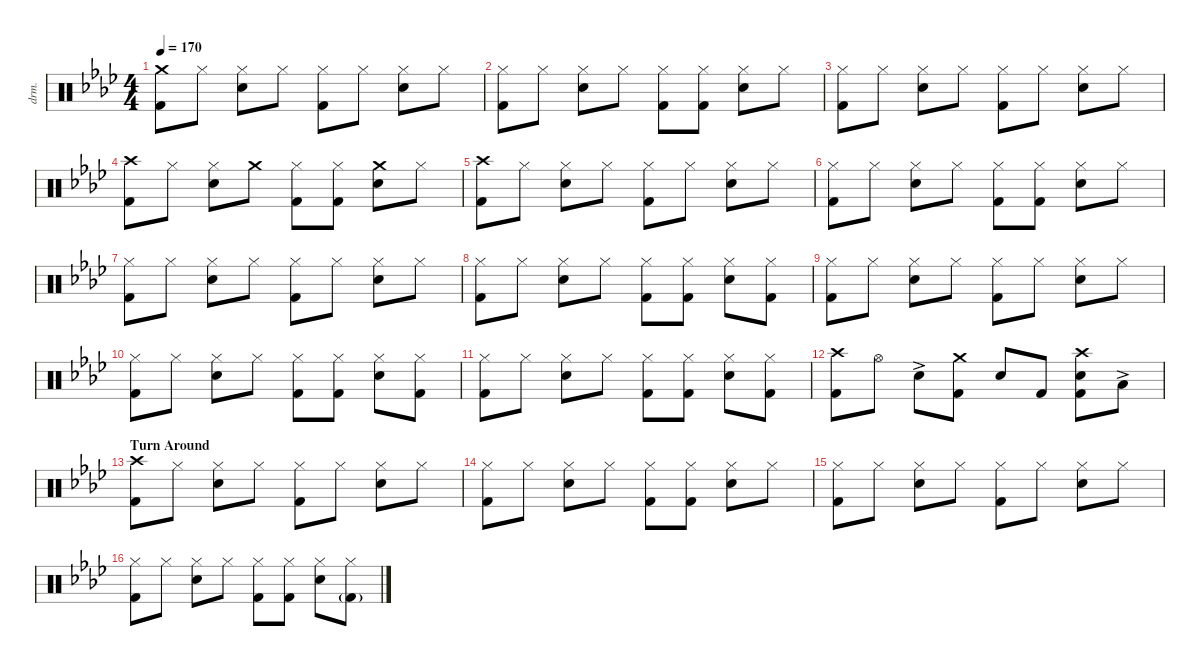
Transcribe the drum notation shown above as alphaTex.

\defaultSystemsLayout 4
\hideDynamics
\bracketExtendMode nobrackets
\otherSystemsTrackNameOrientation horizontal
\track ("Drumkit" "drm.") {instrument percussion}
\staff {score}
\articulation defaults
\ts (4 4)
\tempo 170
\clef neutral
\ks fminor
("Kick (hit) 2"{acc forcenatural} "Crash medium (hit)"{acc forcenatural}).8{dy mf beam Down} "Hi-Hat (closed)"{acc forcenatural}.8{beam Down} ("Hi-Hat (closed)"{acc forcenatural} "Snare (hit) 2"{acc forcenatural}).8{beam Down} "Hi-Hat (closed)"{acc forcenatural}.8{beam Down} ("Hi-Hat (closed)"{acc forcenatural} "Kick (hit) 2"{acc forcenatural}).8{beam Down} "Hi-Hat (closed)"{acc forcenatural}.8{beam Down} ("Hi-Hat (closed)"{acc forcenatural} "Snare (hit) 2"{acc forcenatural}).8{beam Down} "Hi-Hat (closed)"{acc forcenatural}.8{beam Down} |
("Hi-Hat (closed)"{acc forcenatural} "Kick (hit) 2"{acc forcenatural}).8{beam Down} "Hi-Hat (closed)"{acc forcenatural}.8{beam Down} ("Hi-Hat (closed)"{acc forcenatural} "Snare (hit) 2"{acc forcenatural}).8{beam Down} "Hi-Hat (closed)"{acc forcenatural}.8{beam Down} ("Hi-Hat (closed)"{acc forcenatural} "Kick (hit) 2"{acc forcenatural}).8{beam Down} ("Hi-Hat (closed)"{acc forcenatural} "Kick (hit) 2"{acc forcenatural}).8{beam Down} ("Hi-Hat (closed)"{acc forcenatural} "Snare (hit) 2"{acc forcenatural}).8{beam Down} "Hi-Hat (closed)"{acc forcenatural}.8{beam Down} |
("Hi-Hat (closed)"{acc forcenatural} "Kick (hit) 2"{acc forcenatural}).8{beam Down} "Hi-Hat (closed)"{acc forcenatural}.8{beam Down} ("Hi-Hat (closed)"{acc forcenatural} "Snare (hit) 2"{acc forcenatural}).8{beam Down} "Hi-Hat (closed)"{acc forcenatural}.8{beam Down} ("Hi-Hat (closed)"{acc forcenatural} "Kick (hit) 2"{acc forcenatural}).8{beam Down} "Hi-Hat (closed)"{acc forcenatural}.8{beam Down} ("Hi-Hat (closed)"{acc forcenatural} "Snare (hit) 2"{acc forcenatural}).8{beam Down} "Hi-Hat (closed)"{acc forcenatural}.8{beam Down} |
("Kick (hit) 2"{acc forcenatural} "Crash high (hit)"{acc forcenatural}).8{beam Down} "Hi-Hat (closed)"{acc forcenatural}.8{beam Down} ("Hi-Hat (closed)"{acc forcenatural} "Snare (hit) 2"{acc forcenatural}).8{beam Down} "Crash medium (hit)"{acc forcenatural}.8{beam Down} ("Hi-Hat (closed)"{acc forcenatural} "Kick (hit) 2"{acc forcenatural}).8{beam Down} ("Hi-Hat (closed)"{acc forcenatural} "Kick (hit) 2"{acc forcenatural}).8{beam Down} ("Snare (hit) 2"{acc forcenatural} "Crash medium (hit)"{acc forcenatural}).8{beam Down} "Hi-Hat (closed)"{acc forcenatural}.8{beam Down} |
("Kick (hit) 2"{acc forcenatural} "Crash high (hit)"{acc forcenatural}).8{beam Down} "Hi-Hat (closed)"{acc forcenatural}.8{beam Down} ("Hi-Hat (closed)"{acc forcenatural} "Snare (hit) 2"{acc forcenatural}).8{beam Down} "Hi-Hat (closed)"{acc forcenatural}.8{beam Down} ("Hi-Hat (closed)"{acc forcenatural} "Kick (hit) 2"{acc forcenatural}).8{beam Down} "Hi-Hat (closed)"{acc forcenatural}.8{beam Down} ("Hi-Hat (closed)"{acc forcenatural} "Snare (hit) 2"{acc forcenatural}).8{beam Down} "Hi-Hat (closed)"{acc forcenatural}.8{beam Down} |
("Hi-Hat (closed)"{acc forcenatural} "Kick (hit) 2"{acc forcenatural}).8{beam Down} "Hi-Hat (closed)"{acc forcenatural}.8{beam Down} ("Hi-Hat (closed)"{acc forcenatural} "Snare (hit) 2"{acc forcenatural}).8{beam Down} "Hi-Hat (closed)"{acc forcenatural}.8{beam Down} ("Hi-Hat (closed)"{acc forcenatural} "Kick (hit) 2"{acc forcenatural}).8{beam Down} ("Hi-Hat (closed)"{acc forcenatural} "Kick (hit) 2"{acc forcenatural}).8{beam Down} ("Hi-Hat (closed)"{acc forcenatural} "Snare (hit) 2"{acc forcenatural}).8{beam Down} "Hi-Hat (closed)"{acc forcenatural}.8{beam Down} |
("Hi-Hat (closed)"{acc forcenatural} "Kick (hit) 2"{acc forcenatural}).8{beam Down} "Hi-Hat (closed)"{acc forcenatural}.8{beam Down} ("Hi-Hat (closed)"{acc forcenatural} "Snare (hit) 2"{acc forcenatural}).8{beam Down} "Hi-Hat (closed)"{acc forcenatural}.8{beam Down} ("Hi-Hat (closed)"{acc forcenatural} "Kick (hit) 2"{acc forcenatural}).8{beam Down} "Hi-Hat (closed)"{acc forcenatural}.8{beam Down} ("Hi-Hat (closed)"{acc forcenatural} "Snare (hit) 2"{acc forcenatural}).8{beam Down} "Hi-Hat (closed)"{acc forcenatural}.8{beam Down} |
("Hi-Hat (closed)"{acc forcenatural} "Kick (hit) 2"{acc forcenatural}).8{beam Down} "Hi-Hat (closed)"{acc forcenatural}.8{beam Down} ("Hi-Hat (closed)"{acc forcenatural} "Snare (hit) 2"{acc forcenatural}).8{beam Down} "Hi-Hat (closed)"{acc forcenatural}.8{beam Down} ("Hi-Hat (closed)"{acc forcenatural} "Kick (hit) 2"{acc forcenatural}).8{beam Down} ("Hi-Hat (closed)"{acc forcenatural} "Kick (hit) 2"{acc forcenatural}).8{beam Down} ("Hi-Hat (closed)"{acc forcenatural} "Snare (hit) 2"{acc forcenatural}).8{beam Down} ("Hi-Hat (closed)"{acc forcenatural} "Kick (hit) 2"{acc forcenatural}).8{beam Down} |
("Hi-Hat (closed)"{acc forcenatural} "Kick (hit) 2"{acc forcenatural}).8{beam Down} "Hi-Hat (closed)"{acc forcenatural}.8{beam Down} ("Hi-Hat (closed)"{acc forcenatural} "Snare (hit) 2"{acc forcenatural}).8{beam Down} "Hi-Hat (closed)"{acc forcenatural}.8{beam Down} ("Hi-Hat (closed)"{acc forcenatural} "Kick (hit) 2"{acc forcenatural}).8{beam Down} "Hi-Hat (closed)"{acc forcenatural}.8{beam Down} ("Hi-Hat (closed)"{acc forcenatural} "Snare (hit) 2"{acc forcenatural}).8{beam Down} "Hi-Hat (closed)"{acc forcenatural}.8{beam Down} |
("Hi-Hat (closed)"{acc forcenatural} "Kick (hit) 2"{acc forcenatural}).8{beam Down} "Hi-Hat (closed)"{acc forcenatural}.8{beam Down} ("Hi-Hat (closed)"{acc forcenatural} "Snare (hit) 2"{acc forcenatural}).8{beam Down} "Hi-Hat (closed)"{acc forcenatural}.8{beam Down} ("Hi-Hat (closed)"{acc forcenatural} "Kick (hit) 2"{acc forcenatural}).8{beam Down} ("Hi-Hat (closed)"{acc forcenatural} "Kick (hit) 2"{acc forcenatural}).8{beam Down} ("Hi-Hat (closed)"{acc forcenatural} "Snare (hit) 2"{acc forcenatural}).8{beam Down} ("Hi-Hat (closed)"{acc forcenatural} "Kick (hit) 2"{acc forcenatural}).8{beam Down} |
("Hi-Hat (closed)"{acc forcenatural} "Kick (hit) 2"{acc forcenatural}).8{beam Down} "Hi-Hat (closed)"{acc forcenatural}.8{beam Down} ("Hi-Hat (closed)"{acc forcenatural} "Snare (hit) 2"{acc forcenatural}).8{beam Down} "Hi-Hat (closed)"{acc forcenatural}.8{beam Down} ("Hi-Hat (closed)"{acc forcenatural} "Kick (hit) 2"{acc forcenatural}).8{beam Down} ("Hi-Hat (closed)"{acc forcenatural} "Kick (hit) 2"{acc forcenatural}).8{beam Down} ("Hi-Hat (closed)"{acc forcenatural} "Snare (hit) 2"{acc forcenatural}).8{beam Down} ("Hi-Hat (closed)"{acc forcenatural} "Kick (hit) 2"{acc forcenatural}).8{beam Down} |
("Kick (hit) 2"{acc forcenatural} "Crash high (hit)"{acc forcenatural}).8{beam Down} "Hi-Hat (open)"{acc forcenatural}.8{beam Down} "Snare (hit) 2"{ac acc forcenatural}.8{beam Down} ("Crash medium (hit)"{acc forcenatural} "Kick (hit) 2"{acc forcenatural}).8{beam Down} "Snare (hit) 2"{acc forcenatural}.8{beam Up} "Kick (hit) 2"{acc forcenatural}.8{beam Up} ("Kick (hit) 2"{acc forcenatural} "Crash high (hit)"{acc forcenatural} "Snare (hit) 2"{acc forcenatural}).8{beam Down} "Low Tom (hit)"{ac acc forcenatural}.8{beam Down} |
\section ("" "Turn Around")
("Kick (hit) 2"{acc forcenatural} "Crash high (hit)"{acc forcenatural}).8{beam Down} "Hi-Hat (closed)"{acc forcenatural}.8{beam Down} ("Hi-Hat (closed)"{acc forcenatural} "Snare (hit) 2"{acc forcenatural}).8{beam Down} "Hi-Hat (closed)"{acc forcenatural}.8{beam Down} ("Hi-Hat (closed)"{acc forcenatural} "Kick (hit) 2"{acc forcenatural}).8{beam Down} "Hi-Hat (closed)"{acc forcenatural}.8{beam Down} ("Hi-Hat (closed)"{acc forcenatural} "Snare (hit) 2"{acc forcenatural}).8{beam Down} "Hi-Hat (closed)"{acc forcenatural}.8{beam Down} |
("Hi-Hat (closed)"{acc forcenatural} "Kick (hit) 2"{acc forcenatural}).8{beam Down} "Hi-Hat (closed)"{acc forcenatural}.8{beam Down} ("Hi-Hat (closed)"{acc forcenatural} "Snare (hit) 2"{acc forcenatural}).8{beam Down} "Hi-Hat (closed)"{acc forcenatural}.8{beam Down} ("Hi-Hat (closed)"{acc forcenatural} "Kick (hit) 2"{acc forcenatural}).8{beam Down} ("Hi-Hat (closed)"{acc forcenatural} "Kick (hit) 2"{acc forcenatural}).8{beam Down} ("Hi-Hat (closed)"{acc forcenatural} "Snare (hit) 2"{acc forcenatural}).8{beam Down} "Hi-Hat (closed)"{acc forcenatural}.8{beam Down} |
("Hi-Hat (closed)"{acc forcenatural} "Kick (hit) 2"{acc forcenatural}).8{beam Down} "Hi-Hat (closed)"{acc forcenatural}.8{beam Down} ("Hi-Hat (closed)"{acc forcenatural} "Snare (hit) 2"{acc forcenatural}).8{beam Down} "Hi-Hat (closed)"{acc forcenatural}.8{beam Down} ("Hi-Hat (closed)"{acc forcenatural} "Kick (hit) 2"{acc forcenatural}).8{beam Down} "Hi-Hat (closed)"{acc forcenatural}.8{beam Down} ("Hi-Hat (closed)"{acc forcenatural} "Snare (hit) 2"{acc forcenatural}).8{beam Down} "Hi-Hat (closed)"{acc forcenatural}.8{beam Down} |
("Hi-Hat (closed)"{acc forcenatural} "Kick (hit) 2"{acc forcenatural}).8{beam Down} "Hi-Hat (closed)"{acc forcenatural}.8{beam Down} ("Hi-Hat (closed)"{acc forcenatural} "Snare (hit) 2"{acc forcenatural}).8{beam Down} "Hi-Hat (closed)"{acc forcenatural}.8{beam Down} ("Hi-Hat (closed)"{acc forcenatural} "Kick (hit) 2"{acc forcenatural}).8{beam Down} ("Hi-Hat (closed)"{acc forcenatural} "Kick (hit) 2"{acc forcenatural}).8{beam Down} ("Hi-Hat (closed)"{acc forcenatural} "Snare (hit) 2"{acc forcenatural}).8{beam Down} ("Hi-Hat (closed)"{acc forcenatural} "Kick (hit) 2"{g acc forcenatural}).8{beam Down}
